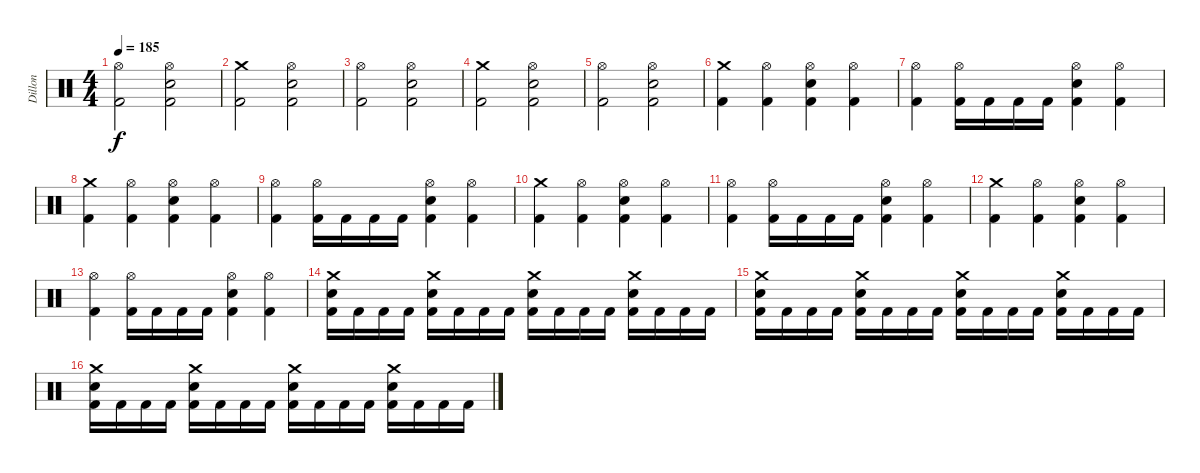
\track ("Dillon" "Dillon") {instrument percussion}
\staff {score}
\articulation defaults
\ts (4 4)
\tempo 185
\clef neutral
\ks c
("Hi-Hat (open)" "Kick (hit) 2").2{dy f} ("Hi-Hat (open)" "Electric Snare (hit)" "Kick (hit) 2").2 |
("Crash medium (hit)" "Kick (hit) 2").2 ("Hi-Hat (open)" "Electric Snare (hit)" "Kick (hit) 2").2 |
("Hi-Hat (open)" "Kick (hit) 2").2 ("Hi-Hat (open)" "Electric Snare (hit)" "Kick (hit) 2").2 |
("Crash medium (hit)" "Kick (hit) 2").2 ("Hi-Hat (open)" "Electric Snare (hit)" "Kick (hit) 2").2 |
("Hi-Hat (open)" "Kick (hit) 2").2 ("Hi-Hat (open)" "Electric Snare (hit)" "Kick (hit) 2").2 |
("Crash medium (hit)" "Kick (hit) 2").4 ("Hi-Hat (open)" "Kick (hit) 2").4 ("Hi-Hat (open)" "Electric Snare (hit)" "Kick (hit) 2").4 ("Hi-Hat (open)" "Kick (hit) 2").4 |
("Hi-Hat (open)" "Kick (hit) 2").4 ("Hi-Hat (open)" "Kick (hit) 2").16 "Kick (hit) 2".16 "Kick (hit) 2".16 "Kick (hit) 2".16 ("Hi-Hat (open)" "Electric Snare (hit)" "Kick (hit) 2").4 ("Hi-Hat (open)" "Kick (hit) 2").4 |
("Crash medium (hit)" "Kick (hit) 2").4 ("Hi-Hat (open)" "Kick (hit) 2").4 ("Hi-Hat (open)" "Electric Snare (hit)" "Kick (hit) 2").4 ("Hi-Hat (open)" "Kick (hit) 2").4 |
("Hi-Hat (open)" "Kick (hit) 2").4 ("Hi-Hat (open)" "Kick (hit) 2").16 "Kick (hit) 2".16 "Kick (hit) 2".16 "Kick (hit) 2".16 ("Hi-Hat (open)" "Electric Snare (hit)" "Kick (hit) 2").4 ("Hi-Hat (open)" "Kick (hit) 2").4 |
("Crash medium (hit)" "Kick (hit) 2").4 ("Hi-Hat (open)" "Kick (hit) 2").4 ("Hi-Hat (open)" "Electric Snare (hit)" "Kick (hit) 2").4 ("Hi-Hat (open)" "Kick (hit) 2").4 |
("Hi-Hat (open)" "Kick (hit) 2").4 ("Hi-Hat (open)" "Kick (hit) 2").16 "Kick (hit) 2".16 "Kick (hit) 2".16 "Kick (hit) 2".16 ("Hi-Hat (open)" "Electric Snare (hit)" "Kick (hit) 2").4 ("Hi-Hat (open)" "Kick (hit) 2").4 |
("Crash medium (hit)" "Kick (hit) 2").4 ("Hi-Hat (open)" "Kick (hit) 2").4 ("Hi-Hat (open)" "Electric Snare (hit)" "Kick (hit) 2").4 ("Hi-Hat (open)" "Kick (hit) 2").4 |
("Hi-Hat (open)" "Kick (hit) 2").4 ("Hi-Hat (open)" "Kick (hit) 2").16 "Kick (hit) 2".16 "Kick (hit) 2".16 "Kick (hit) 2".16 ("Hi-Hat (open)" "Electric Snare (hit)" "Kick (hit) 2").4 ("Hi-Hat (open)" "Kick (hit) 2").4 |
("Crash medium (hit)" "Electric Snare (hit)" "Kick (hit) 2").16 "Kick (hit) 2".16 "Kick (hit) 2".16 "Kick (hit) 2".16 ("Crash medium (hit)" "Electric Snare (hit)" "Kick (hit) 2").16 "Kick (hit) 2".16 "Kick (hit) 2".16 "Kick (hit) 2".16 ("Crash medium (hit)" "Electric Snare (hit)" "Kick (hit) 2").16 "Kick (hit) 2".16 "Kick (hit) 2".16 "Kick (hit) 2".16 ("Crash medium (hit)" "Electric Snare (hit)" "Kick (hit) 2").16 "Kick (hit) 2".16 "Kick (hit) 2".16 "Kick (hit) 2".16 |
("Crash medium (hit)" "Electric Snare (hit)" "Kick (hit) 2").16 "Kick (hit) 2".16 "Kick (hit) 2".16 "Kick (hit) 2".16 ("Crash medium (hit)" "Electric Snare (hit)" "Kick (hit) 2").16 "Kick (hit) 2".16 "Kick (hit) 2".16 "Kick (hit) 2".16 ("Crash medium (hit)" "Electric Snare (hit)" "Kick (hit) 2").16 "Kick (hit) 2".16 "Kick (hit) 2".16 "Kick (hit) 2".16 ("Crash medium (hit)" "Electric Snare (hit)" "Kick (hit) 2").16 "Kick (hit) 2".16 "Kick (hit) 2".16 "Kick (hit) 2".16 |
("Crash medium (hit)" "Electric Snare (hit)" "Kick (hit) 2").16 "Kick (hit) 2".16 "Kick (hit) 2".16 "Kick (hit) 2".16 ("Crash medium (hit)" "Electric Snare (hit)" "Kick (hit) 2").16 "Kick (hit) 2".16 "Kick (hit) 2".16 "Kick (hit) 2".16 ("Crash medium (hit)" "Electric Snare (hit)" "Kick (hit) 2").16 "Kick (hit) 2".16 "Kick (hit) 2".16 "Kick (hit) 2".16 ("Crash medium (hit)" "Electric Snare (hit)" "Kick (hit) 2").16 "Kick (hit) 2".16 "Kick (hit) 2".16 "Kick (hit) 2".16
